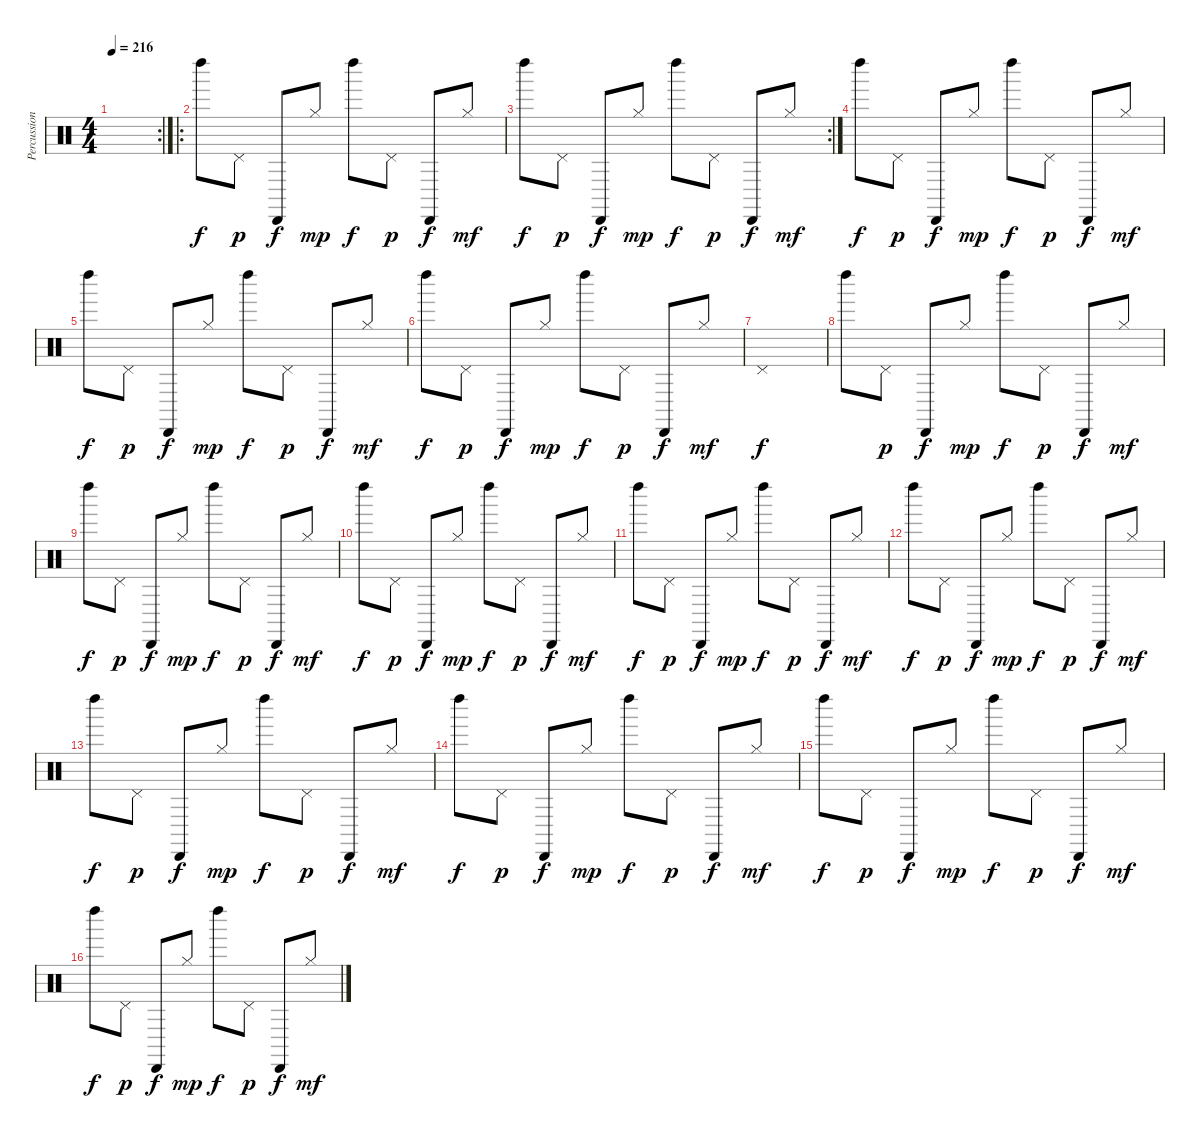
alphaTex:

\track ("Percussions" "Percussion") {instrument percussion}
\staff {score}
\articulation defaults
\rc 2
\ts (4 4)
\tempo 216
\clef neutral
\ks c
|
\ro "Left Maraca (hit)".8 "Pedal Hi-Hat (hit)".8{dy p} "Cabasa (hit)".8{dy f} "Hi-Hat (closed)".8{dy mp} "Left Maraca (hit)".8{dy f} "Pedal Hi-Hat (hit)".8{dy p} "Cabasa (hit)".8{dy f} "Hi-Hat (closed)".8{dy mf}
|
\rc 2 "Left Maraca (hit)".8{dy f} "Pedal Hi-Hat (hit)".8{dy p} "Cabasa (hit)".8{dy f} "Hi-Hat (closed)".8{dy mp} "Left Maraca (hit)".8{dy f} "Pedal Hi-Hat (hit)".8{dy p} "Cabasa (hit)".8{dy f} "Hi-Hat (closed)".8{dy mf}
|
"Left Maraca (hit)".8{dy f} "Pedal Hi-Hat (hit)".8{dy p} "Cabasa (hit)".8{dy f} "Hi-Hat (closed)".8{dy mp} "Left Maraca (hit)".8{dy f} "Pedal Hi-Hat (hit)".8{dy p} "Cabasa (hit)".8{dy f} "Hi-Hat (closed)".8{dy mf} |
"Left Maraca (hit)".8{dy f} "Pedal Hi-Hat (hit)".8{dy p} "Cabasa (hit)".8{dy f} "Hi-Hat (closed)".8{dy mp} "Left Maraca (hit)".8{dy f} "Pedal Hi-Hat (hit)".8{dy p} "Cabasa (hit)".8{dy f} "Hi-Hat (closed)".8{dy mf} |
"Left Maraca (hit)".8{dy f} "Pedal Hi-Hat (hit)".8{dy p} "Cabasa (hit)".8{dy f} "Hi-Hat (closed)".8{dy mp} "Left Maraca (hit)".8{dy f} "Pedal Hi-Hat (hit)".8{dy p} "Cabasa (hit)".8{dy f} "Hi-Hat (closed)".8{dy mf} |
"Pedal Hi-Hat (hit)".1{dy f} |
"Left Maraca (hit)".8 "Pedal Hi-Hat (hit)".8{dy p} "Cabasa (hit)".8{dy f} "Hi-Hat (closed)".8{dy mp} "Left Maraca (hit)".8{dy f} "Pedal Hi-Hat (hit)".8{dy p} "Cabasa (hit)".8{dy f} "Hi-Hat (closed)".8{dy mf} |
"Left Maraca (hit)".8{dy f} "Pedal Hi-Hat (hit)".8{dy p} "Cabasa (hit)".8{dy f} "Hi-Hat (closed)".8{dy mp} "Left Maraca (hit)".8{dy f} "Pedal Hi-Hat (hit)".8{dy p} "Cabasa (hit)".8{dy f} "Hi-Hat (closed)".8{dy mf} |
"Left Maraca (hit)".8{dy f} "Pedal Hi-Hat (hit)".8{dy p} "Cabasa (hit)".8{dy f} "Hi-Hat (closed)".8{dy mp} "Left Maraca (hit)".8{dy f} "Pedal Hi-Hat (hit)".8{dy p} "Cabasa (hit)".8{dy f} "Hi-Hat (closed)".8{dy mf} |
"Left Maraca (hit)".8{dy f} "Pedal Hi-Hat (hit)".8{dy p} "Cabasa (hit)".8{dy f} "Hi-Hat (closed)".8{dy mp} "Left Maraca (hit)".8{dy f} "Pedal Hi-Hat (hit)".8{dy p} "Cabasa (hit)".8{dy f} "Hi-Hat (closed)".8{dy mf} |
"Left Maraca (hit)".8{dy f} "Pedal Hi-Hat (hit)".8{dy p} "Cabasa (hit)".8{dy f} "Hi-Hat (closed)".8{dy mp} "Left Maraca (hit)".8{dy f} "Pedal Hi-Hat (hit)".8{dy p} "Cabasa (hit)".8{dy f} "Hi-Hat (closed)".8{dy mf} |
"Left Maraca (hit)".8{dy f} "Pedal Hi-Hat (hit)".8{dy p} "Cabasa (hit)".8{dy f} "Hi-Hat (closed)".8{dy mp} "Left Maraca (hit)".8{dy f} "Pedal Hi-Hat (hit)".8{dy p} "Cabasa (hit)".8{dy f} "Hi-Hat (closed)".8{dy mf} |
"Left Maraca (hit)".8{dy f} "Pedal Hi-Hat (hit)".8{dy p} "Cabasa (hit)".8{dy f} "Hi-Hat (closed)".8{dy mp} "Left Maraca (hit)".8{dy f} "Pedal Hi-Hat (hit)".8{dy p} "Cabasa (hit)".8{dy f} "Hi-Hat (closed)".8{dy mf} |
"Left Maraca (hit)".8{dy f} "Pedal Hi-Hat (hit)".8{dy p} "Cabasa (hit)".8{dy f} "Hi-Hat (closed)".8{dy mp} "Left Maraca (hit)".8{dy f} "Pedal Hi-Hat (hit)".8{dy p} "Cabasa (hit)".8{dy f} "Hi-Hat (closed)".8{dy mf} |
"Left Maraca (hit)".8{dy f} "Pedal Hi-Hat (hit)".8{dy p} "Cabasa (hit)".8{dy f} "Hi-Hat (closed)".8{dy mp} "Left Maraca (hit)".8{dy f} "Pedal Hi-Hat (hit)".8{dy p} "Cabasa (hit)".8{dy f} "Hi-Hat (closed)".8{dy mf}
